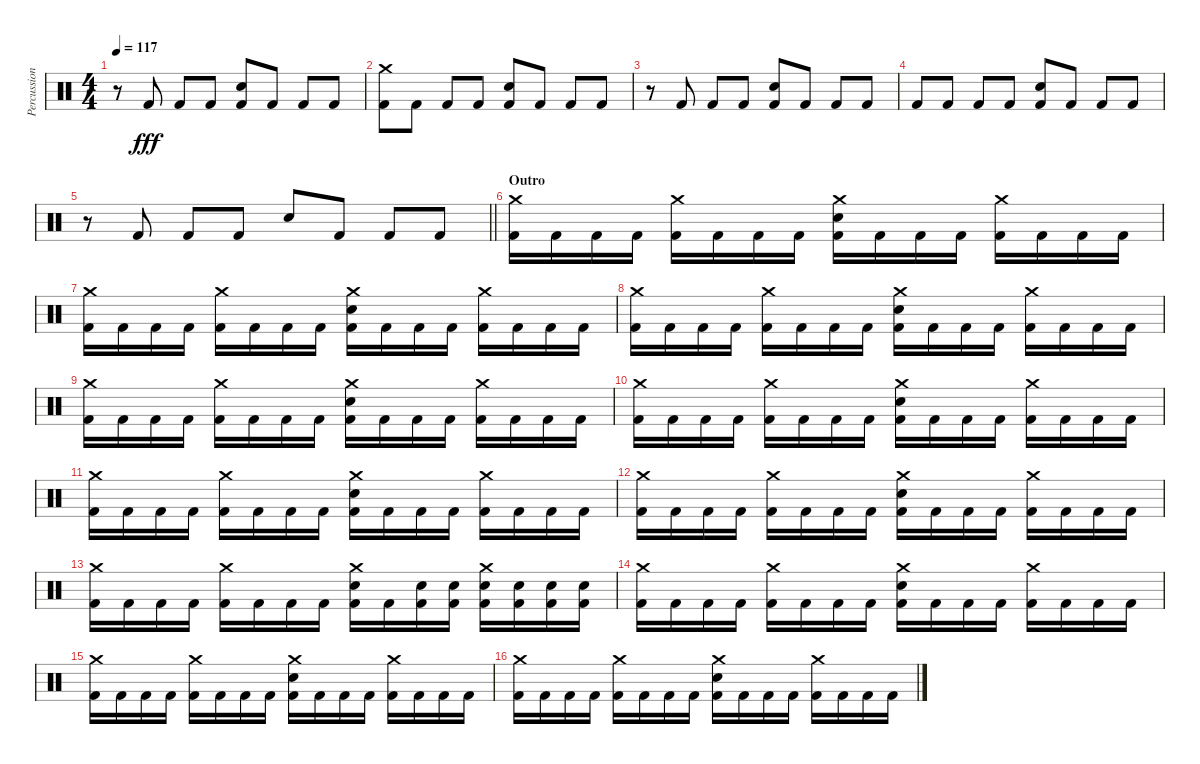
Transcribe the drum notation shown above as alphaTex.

\track ("Percussioni" "Percussion") {instrument percussion}
\staff {score}
\articulation defaults
\ts (4 4)
\tempo 117
\clef neutral
\ks c
r.8{dy fff} "Kick (hit) 2".8 "Kick (hit) 2".8 "Kick (hit) 2".8 ("Electric Snare (hit)" "Kick (hit) 2").8 "Kick (hit) 2".8 "Kick (hit) 2".8 "Kick (hit) 2".8 |
("Crash medium (hit)" "Kick (hit) 2").8 "Kick (hit) 2".8 "Kick (hit) 2".8 "Kick (hit) 2".8 ("Electric Snare (hit)" "Kick (hit) 2").8 "Kick (hit) 2".8 "Kick (hit) 2".8 "Kick (hit) 2".8 |
r.8 "Kick (hit) 2".8 "Kick (hit) 2".8 "Kick (hit) 2".8 ("Electric Snare (hit)" "Kick (hit) 2").8 "Kick (hit) 2".8 "Kick (hit) 2".8 "Kick (hit) 2".8 |
"Kick (hit) 2".8 "Kick (hit) 2".8 "Kick (hit) 2".8 "Kick (hit) 2".8 ("Electric Snare (hit)" "Kick (hit) 2").8 "Kick (hit) 2".8 "Kick (hit) 2".8 "Kick (hit) 2".8 |
\barLineRight lightlight
r.8 "Kick (hit) 2".8 "Kick (hit) 2".8 "Kick (hit) 2".8 "Electric Snare (hit)".8 "Kick (hit) 2".8 "Kick (hit) 2".8 "Kick (hit) 2".8 |
\section ("" "Outro")
("Crash medium (hit)" "Kick (hit) 2").16 "Kick (hit) 2".16 "Kick (hit) 2".16 "Kick (hit) 2".16 ("Crash medium (hit)" "Kick (hit) 2").16 "Kick (hit) 2".16 "Kick (hit) 2".16 "Kick (hit) 2".16 ("Crash medium (hit)" "Electric Snare (hit)" "Kick (hit) 2").16 "Kick (hit) 2".16 "Kick (hit) 2".16 "Kick (hit) 2".16 ("Crash medium (hit)" "Kick (hit) 2").16 "Kick (hit) 2".16 "Kick (hit) 2".16 "Kick (hit) 2".16 |
("Crash medium (hit)" "Kick (hit) 2").16 "Kick (hit) 2".16 "Kick (hit) 2".16 "Kick (hit) 2".16 ("Crash medium (hit)" "Kick (hit) 2").16 "Kick (hit) 2".16 "Kick (hit) 2".16 "Kick (hit) 2".16 ("Crash medium (hit)" "Electric Snare (hit)" "Kick (hit) 2").16 "Kick (hit) 2".16 "Kick (hit) 2".16 "Kick (hit) 2".16 ("Crash medium (hit)" "Kick (hit) 2").16 "Kick (hit) 2".16 "Kick (hit) 2".16 "Kick (hit) 2".16 |
("Crash medium (hit)" "Kick (hit) 2").16 "Kick (hit) 2".16 "Kick (hit) 2".16 "Kick (hit) 2".16 ("Crash medium (hit)" "Kick (hit) 2").16 "Kick (hit) 2".16 "Kick (hit) 2".16 "Kick (hit) 2".16 ("Crash medium (hit)" "Electric Snare (hit)" "Kick (hit) 2").16 "Kick (hit) 2".16 "Kick (hit) 2".16 "Kick (hit) 2".16 ("Crash medium (hit)" "Kick (hit) 2").16 "Kick (hit) 2".16 "Kick (hit) 2".16 "Kick (hit) 2".16 |
("Crash medium (hit)" "Kick (hit) 2").16 "Kick (hit) 2".16 "Kick (hit) 2".16 "Kick (hit) 2".16 ("Crash medium (hit)" "Kick (hit) 2").16 "Kick (hit) 2".16 "Kick (hit) 2".16 "Kick (hit) 2".16 ("Crash medium (hit)" "Electric Snare (hit)" "Kick (hit) 2").16 "Kick (hit) 2".16 "Kick (hit) 2".16 "Kick (hit) 2".16 ("Crash medium (hit)" "Kick (hit) 2").16 "Kick (hit) 2".16 "Kick (hit) 2".16 "Kick (hit) 2".16 |
("Crash medium (hit)" "Kick (hit) 2").16 "Kick (hit) 2".16 "Kick (hit) 2".16 "Kick (hit) 2".16 ("Crash medium (hit)" "Kick (hit) 2").16 "Kick (hit) 2".16 "Kick (hit) 2".16 "Kick (hit) 2".16 ("Crash medium (hit)" "Electric Snare (hit)" "Kick (hit) 2").16 "Kick (hit) 2".16 "Kick (hit) 2".16 "Kick (hit) 2".16 ("Crash medium (hit)" "Kick (hit) 2").16 "Kick (hit) 2".16 "Kick (hit) 2".16 "Kick (hit) 2".16 |
("Crash medium (hit)" "Kick (hit) 2").16 "Kick (hit) 2".16 "Kick (hit) 2".16 "Kick (hit) 2".16 ("Crash medium (hit)" "Kick (hit) 2").16 "Kick (hit) 2".16 "Kick (hit) 2".16 "Kick (hit) 2".16 ("Crash medium (hit)" "Electric Snare (hit)" "Kick (hit) 2").16 "Kick (hit) 2".16 "Kick (hit) 2".16 "Kick (hit) 2".16 ("Crash medium (hit)" "Kick (hit) 2").16 "Kick (hit) 2".16 "Kick (hit) 2".16 "Kick (hit) 2".16 |
("Crash medium (hit)" "Kick (hit) 2").16 "Kick (hit) 2".16 "Kick (hit) 2".16 "Kick (hit) 2".16 ("Crash medium (hit)" "Kick (hit) 2").16 "Kick (hit) 2".16 "Kick (hit) 2".16 "Kick (hit) 2".16 ("Crash medium (hit)" "Electric Snare (hit)" "Kick (hit) 2").16 "Kick (hit) 2".16 "Kick (hit) 2".16 "Kick (hit) 2".16 ("Crash medium (hit)" "Kick (hit) 2").16 "Kick (hit) 2".16 "Kick (hit) 2".16 "Kick (hit) 2".16 |
("Crash medium (hit)" "Kick (hit) 2").16 "Kick (hit) 2".16 "Kick (hit) 2".16 "Kick (hit) 2".16 ("Crash medium (hit)" "Kick (hit) 2").16 "Kick (hit) 2".16 "Kick (hit) 2".16 "Kick (hit) 2".16 ("Crash medium (hit)" "Electric Snare (hit)" "Kick (hit) 2").16 "Kick (hit) 2".16 ("Snare (hit) 2" "Kick (hit) 2").16 ("Snare (hit) 2" "Kick (hit) 2").16 ("Crash medium (hit)" "Electric Snare (hit)" "Kick (hit) 2").16 ("Electric Snare (hit)" "Kick (hit) 2").16 ("Electric Snare (hit)" "Kick (hit) 2").16 ("Electric Snare (hit)" "Kick (hit) 2").16 |
("Crash medium (hit)" "Kick (hit) 2").16 "Kick (hit) 2".16 "Kick (hit) 2".16 "Kick (hit) 2".16 ("Crash medium (hit)" "Kick (hit) 2").16 "Kick (hit) 2".16 "Kick (hit) 2".16 "Kick (hit) 2".16 ("Crash medium (hit)" "Electric Snare (hit)" "Kick (hit) 2").16 "Kick (hit) 2".16 "Kick (hit) 2".16 "Kick (hit) 2".16 ("Crash medium (hit)" "Kick (hit) 2").16 "Kick (hit) 2".16 "Kick (hit) 2".16 "Kick (hit) 2".16 |
("Crash medium (hit)" "Kick (hit) 2").16 "Kick (hit) 2".16 "Kick (hit) 2".16 "Kick (hit) 2".16 ("Crash medium (hit)" "Kick (hit) 2").16 "Kick (hit) 2".16 "Kick (hit) 2".16 "Kick (hit) 2".16 ("Crash medium (hit)" "Electric Snare (hit)" "Kick (hit) 2").16 "Kick (hit) 2".16 "Kick (hit) 2".16 "Kick (hit) 2".16 ("Crash medium (hit)" "Kick (hit) 2").16 "Kick (hit) 2".16 "Kick (hit) 2".16 "Kick (hit) 2".16 |
("Crash medium (hit)" "Kick (hit) 2").16 "Kick (hit) 2".16 "Kick (hit) 2".16 "Kick (hit) 2".16 ("Crash medium (hit)" "Kick (hit) 2").16 "Kick (hit) 2".16 "Kick (hit) 2".16 "Kick (hit) 2".16 ("Crash medium (hit)" "Electric Snare (hit)" "Kick (hit) 2").16 "Kick (hit) 2".16 "Kick (hit) 2".16 "Kick (hit) 2".16 ("Crash medium (hit)" "Kick (hit) 2").16 "Kick (hit) 2".16 "Kick (hit) 2".16 "Kick (hit) 2".16
